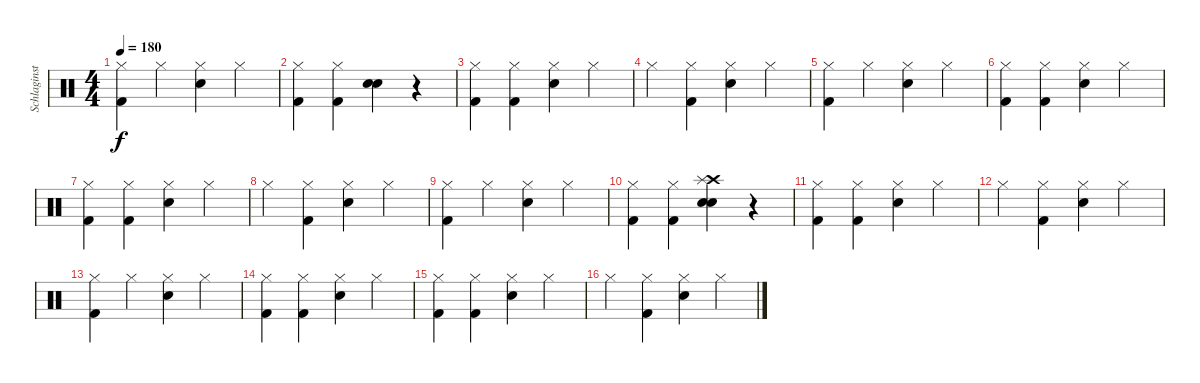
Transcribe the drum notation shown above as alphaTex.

\track ("Schlaginstrumente - Auswahl" "Schlaginst") {instrument percussion}
\staff {score}
\articulation defaults
\ts (4 4)
\tempo 180
\clef neutral
\ks c
("Hi-Hat (closed)" "Kick (hit) 2").4{dy f} "Hi-Hat (closed)".4 ("Hi-Hat (closed)" "Snare (hit) 2").4 "Hi-Hat (closed)".4 |
("Hi-Hat (closed)" "Kick (hit) 2").4 ("Hi-Hat (closed)" "Kick (hit) 2").4 ("Snare (hit) 2" "Snare (hit) 2").4 r.4 |
("Hi-Hat (closed)" "Kick (hit) 2").4 ("Hi-Hat (closed)" "Kick (hit) 2").4 ("Hi-Hat (closed)" "Snare (hit) 2").4 "Hi-Hat (closed)".4 |
"Hi-Hat (closed)".4 ("Hi-Hat (closed)" "Kick (hit) 2").4 ("Hi-Hat (closed)" "Snare (hit) 2").4 "Hi-Hat (closed)".4 |
("Hi-Hat (closed)" "Kick (hit) 2").4 "Hi-Hat (closed)".4 ("Hi-Hat (closed)" "Snare (hit) 2").4 "Hi-Hat (closed)".4 |
("Hi-Hat (closed)" "Kick (hit) 2").4 ("Hi-Hat (closed)" "Kick (hit) 2").4 ("Hi-Hat (closed)" "Snare (hit) 2").4 "Hi-Hat (closed)".4 |
("Hi-Hat (closed)" "Kick (hit) 2").4 ("Hi-Hat (closed)" "Kick (hit) 2").4 ("Hi-Hat (closed)" "Snare (hit) 2").4 "Hi-Hat (closed)".4 |
"Hi-Hat (closed)".4 ("Hi-Hat (closed)" "Kick (hit) 2").4 ("Hi-Hat (closed)" "Snare (hit) 2").4 "Hi-Hat (closed)".4 |
("Hi-Hat (closed)" "Kick (hit) 2").4 "Hi-Hat (closed)".4 ("Hi-Hat (closed)" "Snare (hit) 2").4 "Hi-Hat (closed)".4 |
("Hi-Hat (closed)" "Kick (hit) 2").4 ("Hi-Hat (closed)" "Kick (hit) 2").4 ("Crash high (hit)" "Splash (hit)" "Snare (hit) 2" "Snare (hit) 2").4 r.4 |
("Hi-Hat (closed)" "Kick (hit) 2").4 ("Hi-Hat (closed)" "Kick (hit) 2").4 ("Hi-Hat (closed)" "Snare (hit) 2").4 "Hi-Hat (closed)".4 |
"Hi-Hat (closed)".4 ("Hi-Hat (closed)" "Kick (hit) 2").4 ("Hi-Hat (closed)" "Snare (hit) 2").4 "Hi-Hat (closed)".4 |
("Hi-Hat (closed)" "Kick (hit) 2").4 "Hi-Hat (closed)".4 ("Hi-Hat (closed)" "Snare (hit) 2").4 "Hi-Hat (closed)".4 |
("Hi-Hat (closed)" "Kick (hit) 2").4 ("Hi-Hat (closed)" "Kick (hit) 2").4 ("Hi-Hat (closed)" "Snare (hit) 2").4 "Hi-Hat (closed)".4 |
("Hi-Hat (closed)" "Kick (hit) 2").4 ("Hi-Hat (closed)" "Kick (hit) 2").4 ("Hi-Hat (closed)" "Snare (hit) 2").4 "Hi-Hat (closed)".4 |
"Hi-Hat (closed)".4 ("Hi-Hat (closed)" "Kick (hit) 2").4 ("Hi-Hat (closed)" "Snare (hit) 2").4 "Hi-Hat (closed)".4
